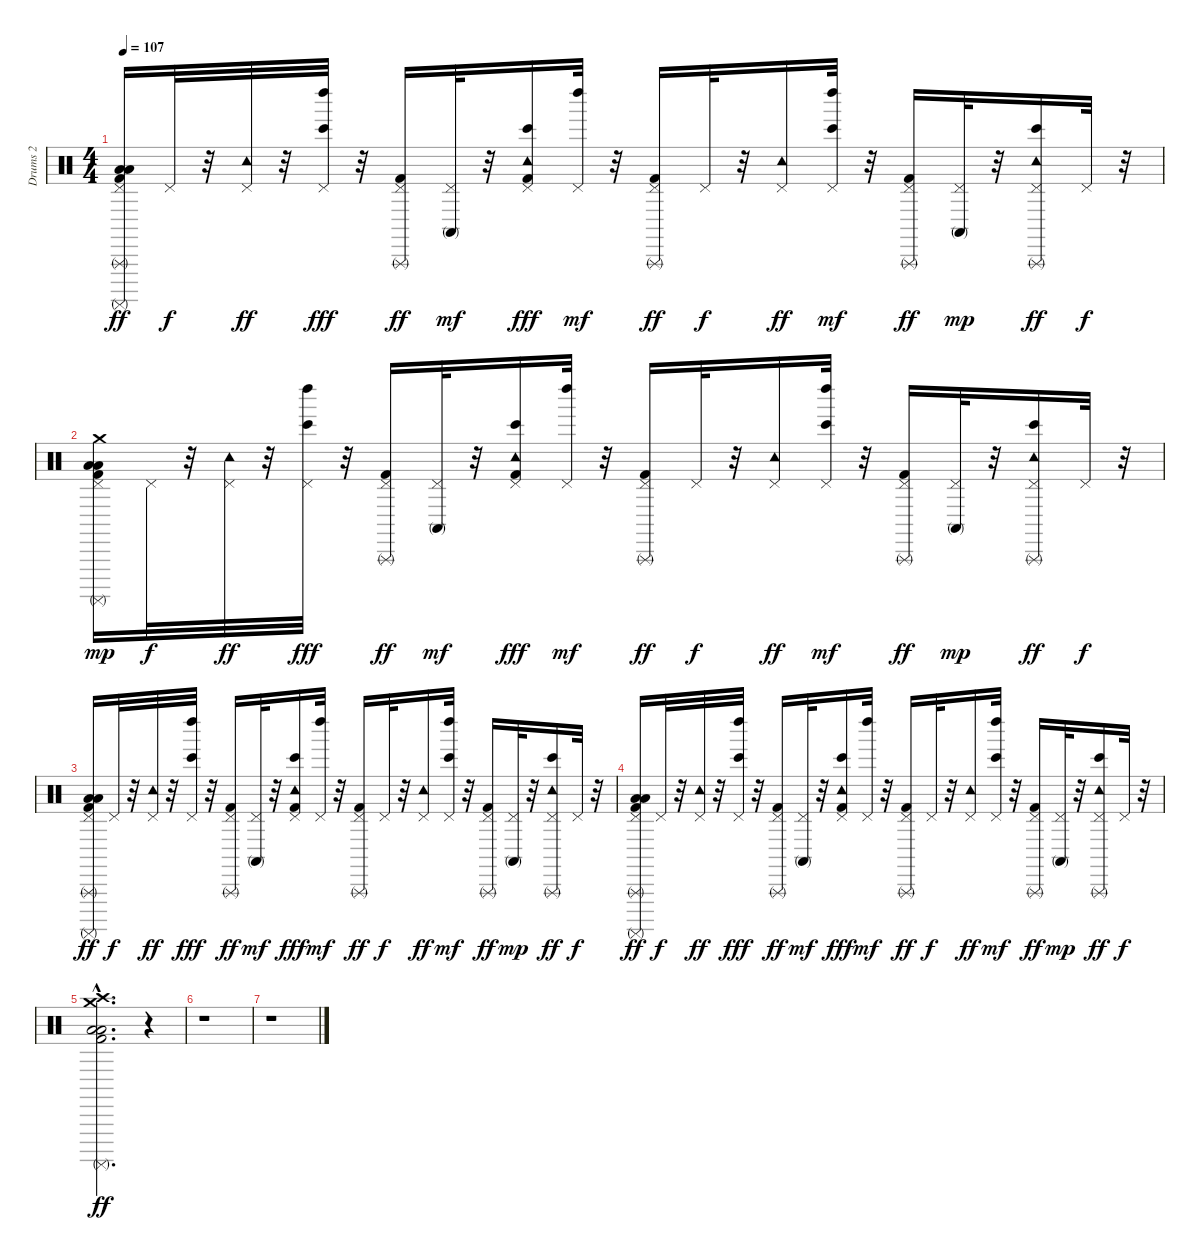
\track ("Drums 2" "Drums 2") {instrument percussion}
\staff {score}
\articulation defaults
\ts (4 4)
\tempo 107
\clef neutral
\ks c
("Kick (hit) 2" "Pedal Hi-Hat (hit)" "Low Tom (hit)" "Low Floor Tom (hit)" "Surdo (mute)" "Triangle (rnute)").16{dy ff} "Pedal Hi-Hat (hit)".32{dy f} r.32 ("Tambourine (hit)" "Pedal Hi-Hat (hit)").32{dy ff} r.32 ("Pedal Hi-Hat (hit)" "Bongo High (hit)" "Left Maraca (hit)").32{dy fff} r.32 ("Kick (hit) 2" "Pedal Hi-Hat (hit)" "Triangle (rnute)").16{dy ff} ("Pedal Hi-Hat (hit)" "Conga high (mute)").32{dy mf} r.32 ("Kick (hit) 2" "Tambourine (hit)" "Pedal Hi-Hat (hit)" "Bongo High (hit)").16{dy fff} ("Pedal Hi-Hat (hit)" "Left Maraca (hit)").32{dy mf} r.32 ("Kick (hit) 2" "Pedal Hi-Hat (hit)" "Triangle (rnute)").16{dy ff} "Pedal Hi-Hat (hit)".32{dy f} r.32 ("Tambourine (hit)" "Pedal Hi-Hat (hit)").16{dy ff} ("Pedal Hi-Hat (hit)" "Bongo High (hit)" "Left Maraca (hit)").32{dy mf} r.32 ("Kick (hit) 2" "Pedal Hi-Hat (hit)" "Triangle (rnute)").16{dy ff} ("Pedal Hi-Hat (hit)" "Conga high (mute)").32{dy mp} r.32 ("Tambourine (hit)" "Pedal Hi-Hat (hit)" "Bongo High (hit)" "Triangle (rnute)").16{dy ff} "Pedal Hi-Hat (hit)".32{dy f} r.32 |
("Kick (hit) 2" "Pedal Hi-Hat (hit)" "Low Tom (hit)" "Low Floor Tom (hit)" "Surdo (mute)" "Crash medium (hit)").16{dy mp} "Pedal Hi-Hat (hit)".32{dy f} r.32 ("Tambourine (hit)" "Pedal Hi-Hat (hit)").32{dy ff} r.32 ("Pedal Hi-Hat (hit)" "Bongo High (hit)" "Left Maraca (hit)").32{dy fff} r.32 ("Kick (hit) 2" "Pedal Hi-Hat (hit)" "Triangle (rnute)").16{dy ff} ("Pedal Hi-Hat (hit)" "Conga high (mute)").32{dy mf} r.32 ("Kick (hit) 2" "Tambourine (hit)" "Pedal Hi-Hat (hit)" "Bongo High (hit)").16{dy fff} ("Pedal Hi-Hat (hit)" "Left Maraca (hit)").32{dy mf} r.32 ("Kick (hit) 2" "Pedal Hi-Hat (hit)" "Triangle (rnute)").16{dy ff} "Pedal Hi-Hat (hit)".32{dy f} r.32 ("Tambourine (hit)" "Pedal Hi-Hat (hit)").16{dy ff} ("Pedal Hi-Hat (hit)" "Bongo High (hit)" "Left Maraca (hit)").32{dy mf} r.32 ("Kick (hit) 2" "Pedal Hi-Hat (hit)" "Triangle (rnute)").16{dy ff} ("Pedal Hi-Hat (hit)" "Conga high (mute)").32{dy mp} r.32 ("Tambourine (hit)" "Pedal Hi-Hat (hit)" "Bongo High (hit)" "Triangle (rnute)").16{dy ff} "Pedal Hi-Hat (hit)".32{dy f} r.32 |
("Kick (hit) 2" "Pedal Hi-Hat (hit)" "Low Tom (hit)" "Low Floor Tom (hit)" "Surdo (mute)" "Triangle (rnute)").16{dy ff} "Pedal Hi-Hat (hit)".32{dy f} r.32 ("Tambourine (hit)" "Pedal Hi-Hat (hit)").32{dy ff} r.32 ("Pedal Hi-Hat (hit)" "Bongo High (hit)" "Left Maraca (hit)").32{dy fff} r.32 ("Kick (hit) 2" "Pedal Hi-Hat (hit)" "Triangle (rnute)").16{dy ff} ("Pedal Hi-Hat (hit)" "Conga high (mute)").32{dy mf} r.32 ("Kick (hit) 2" "Tambourine (hit)" "Pedal Hi-Hat (hit)" "Bongo High (hit)").16{dy fff} ("Pedal Hi-Hat (hit)" "Left Maraca (hit)").32{dy mf} r.32 ("Kick (hit) 2" "Pedal Hi-Hat (hit)" "Triangle (rnute)").16{dy ff} "Pedal Hi-Hat (hit)".32{dy f} r.32 ("Tambourine (hit)" "Pedal Hi-Hat (hit)").16{dy ff} ("Pedal Hi-Hat (hit)" "Bongo High (hit)" "Left Maraca (hit)").32{dy mf} r.32 ("Kick (hit) 2" "Pedal Hi-Hat (hit)" "Triangle (rnute)").16{dy ff} ("Pedal Hi-Hat (hit)" "Conga high (mute)").32{dy mp} r.32 ("Tambourine (hit)" "Pedal Hi-Hat (hit)" "Bongo High (hit)" "Triangle (rnute)").16{dy ff} "Pedal Hi-Hat (hit)".32{dy f} r.32 |
("Kick (hit) 2" "Pedal Hi-Hat (hit)" "Low Tom (hit)" "Low Floor Tom (hit)" "Surdo (mute)" "Triangle (rnute)").16{dy ff} "Pedal Hi-Hat (hit)".32{dy f} r.32 ("Tambourine (hit)" "Pedal Hi-Hat (hit)").32{dy ff} r.32 ("Pedal Hi-Hat (hit)" "Bongo High (hit)" "Left Maraca (hit)").32{dy fff} r.32 ("Kick (hit) 2" "Pedal Hi-Hat (hit)" "Triangle (rnute)").16{dy ff} ("Pedal Hi-Hat (hit)" "Conga high (mute)").32{dy mf} r.32 ("Kick (hit) 2" "Tambourine (hit)" "Pedal Hi-Hat (hit)" "Bongo High (hit)").16{dy fff} ("Pedal Hi-Hat (hit)" "Left Maraca (hit)").32{dy mf} r.32 ("Kick (hit) 2" "Pedal Hi-Hat (hit)" "Triangle (rnute)").16{dy ff} "Pedal Hi-Hat (hit)".32{dy f} r.32 ("Tambourine (hit)" "Pedal Hi-Hat (hit)").16{dy ff} ("Pedal Hi-Hat (hit)" "Bongo High (hit)" "Left Maraca (hit)").32{dy mf} r.32 ("Kick (hit) 2" "Pedal Hi-Hat (hit)" "Triangle (rnute)").16{dy ff} ("Pedal Hi-Hat (hit)" "Conga high (mute)").32{dy mp} r.32 ("Tambourine (hit)" "Pedal Hi-Hat (hit)" "Bongo High (hit)" "Triangle (rnute)").16{dy ff} "Pedal Hi-Hat (hit)".32{dy f} r.32 |
("Low Tom (hit)"{hac} "Low Floor Tom (hit)"{hac} "Kick (hit) 2"{hac} "Surdo (mute)"{hac} "Crash medium (hit)"{hac} "Crash high (hit)"{hac}).2{d dy ff} r.4 |
r.1 |
r.1
